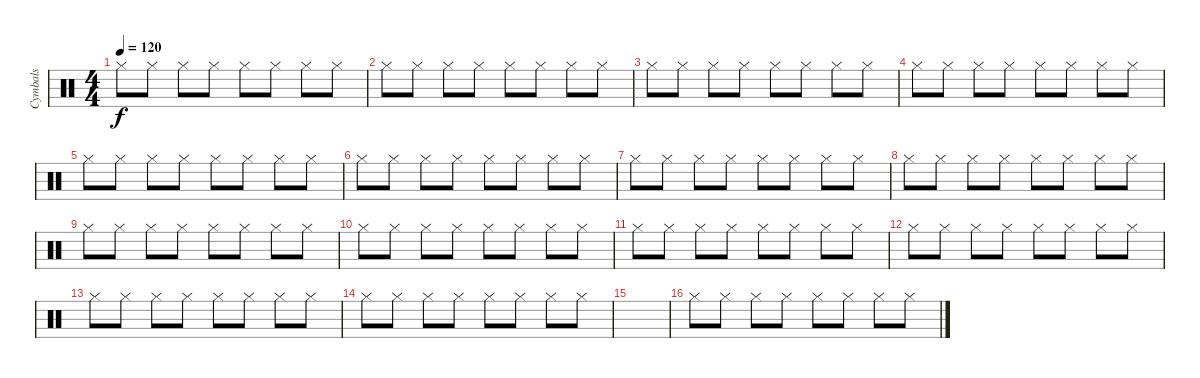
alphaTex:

\track ("Cymbals" "Cymbals") {instrument percussion}
\staff {score}
\articulation defaults
\ts (4 4)
\tempo 120
\clef neutral
\ks c "Hi-Hat (closed)".8{dy f} "Hi-Hat (closed)".8 "Hi-Hat (closed)".8 "Hi-Hat (closed)".8 "Hi-Hat (closed)".8 "Hi-Hat (closed)".8 "Hi-Hat (closed)".8 "Hi-Hat (closed)".8
|
"Hi-Hat (closed)".8 "Hi-Hat (closed)".8 "Hi-Hat (closed)".8 "Hi-Hat (closed)".8 "Hi-Hat (closed)".8 "Hi-Hat (closed)".8 "Hi-Hat (closed)".8 "Hi-Hat (closed)".8 |
"Hi-Hat (closed)".8 "Hi-Hat (closed)".8 "Hi-Hat (closed)".8 "Hi-Hat (closed)".8 "Hi-Hat (closed)".8 "Hi-Hat (closed)".8 "Hi-Hat (closed)".8 "Hi-Hat (closed)".8 |
"Hi-Hat (closed)".8 "Hi-Hat (closed)".8 "Hi-Hat (closed)".8 "Hi-Hat (closed)".8 "Hi-Hat (closed)".8 "Hi-Hat (closed)".8 "Hi-Hat (closed)".8 "Hi-Hat (closed)".8 |
"Hi-Hat (closed)".8 "Hi-Hat (closed)".8 "Hi-Hat (closed)".8 "Hi-Hat (closed)".8 "Hi-Hat (closed)".8 "Hi-Hat (closed)".8 "Hi-Hat (closed)".8 "Hi-Hat (closed)".8 |
"Hi-Hat (closed)".8 "Hi-Hat (closed)".8 "Hi-Hat (closed)".8 "Hi-Hat (closed)".8 "Hi-Hat (closed)".8 "Hi-Hat (closed)".8 "Hi-Hat (closed)".8 "Hi-Hat (closed)".8 |
"Hi-Hat (closed)".8 "Hi-Hat (closed)".8 "Hi-Hat (closed)".8 "Hi-Hat (closed)".8 "Hi-Hat (closed)".8 "Hi-Hat (closed)".8 "Hi-Hat (closed)".8 "Hi-Hat (closed)".8 |
"Hi-Hat (closed)".8 "Hi-Hat (closed)".8 "Hi-Hat (closed)".8 "Hi-Hat (closed)".8 "Hi-Hat (closed)".8 "Hi-Hat (closed)".8 "Hi-Hat (closed)".8 "Hi-Hat (closed)".8 |
"Hi-Hat (closed)".8 "Hi-Hat (closed)".8 "Hi-Hat (closed)".8 "Hi-Hat (closed)".8 "Hi-Hat (closed)".8 "Hi-Hat (closed)".8 "Hi-Hat (closed)".8 "Hi-Hat (closed)".8 |
"Hi-Hat (closed)".8 "Hi-Hat (closed)".8 "Hi-Hat (closed)".8 "Hi-Hat (closed)".8 "Hi-Hat (closed)".8 "Hi-Hat (closed)".8 "Hi-Hat (closed)".8 "Hi-Hat (closed)".8 |
"Hi-Hat (closed)".8 "Hi-Hat (closed)".8 "Hi-Hat (closed)".8 "Hi-Hat (closed)".8 "Hi-Hat (closed)".8 "Hi-Hat (closed)".8 "Hi-Hat (closed)".8 "Hi-Hat (closed)".8 |
"Hi-Hat (closed)".8 "Hi-Hat (closed)".8 "Hi-Hat (closed)".8 "Hi-Hat (closed)".8 "Hi-Hat (closed)".8 "Hi-Hat (closed)".8 "Hi-Hat (closed)".8 "Hi-Hat (closed)".8 |
"Hi-Hat (closed)".8 "Hi-Hat (closed)".8 "Hi-Hat (closed)".8 "Hi-Hat (closed)".8 "Hi-Hat (closed)".8 "Hi-Hat (closed)".8 "Hi-Hat (closed)".8 "Hi-Hat (closed)".8 |
"Hi-Hat (closed)".8 "Hi-Hat (closed)".8 "Hi-Hat (closed)".8 "Hi-Hat (closed)".8 "Hi-Hat (closed)".8 "Hi-Hat (closed)".8 "Hi-Hat (closed)".8 "Hi-Hat (closed)".8 |
|
"Hi-Hat (closed)".8 "Hi-Hat (closed)".8 "Hi-Hat (closed)".8 "Hi-Hat (closed)".8 "Hi-Hat (closed)".8 "Hi-Hat (closed)".8 "Hi-Hat (closed)".8 "Hi-Hat (closed)".8
